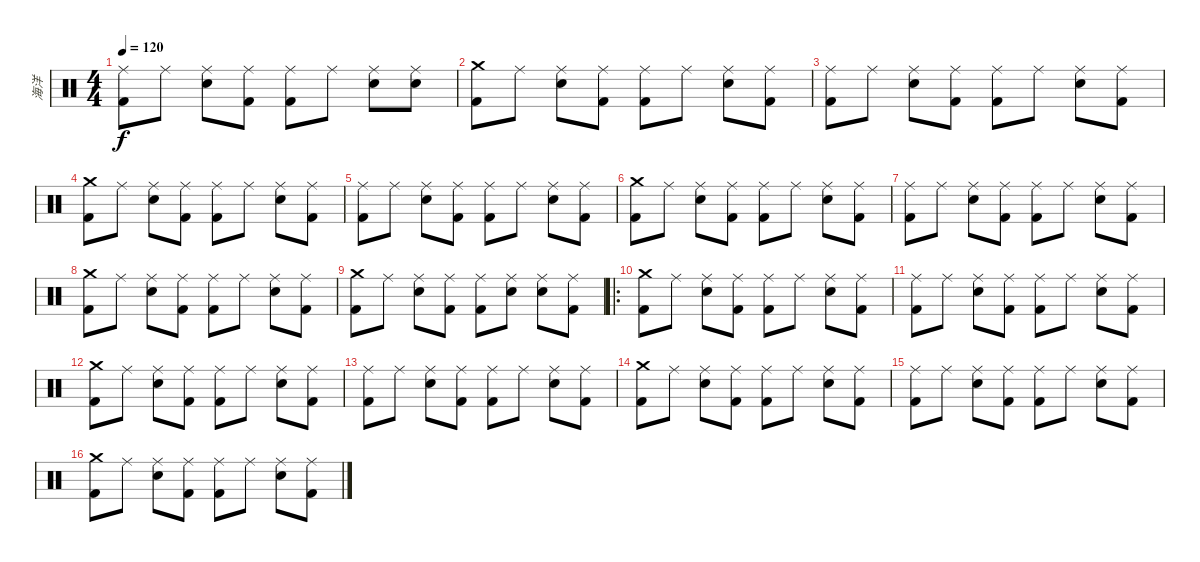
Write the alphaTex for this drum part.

\track ("海洋" "海洋") {instrument percussion}
\staff {score}
\articulation defaults
\ts (4 4)
\tempo 120
\clef neutral
\ks c
("Ride (middle)" "Kick (hit) 2").8{dy f} "Ride (middle)".8 ("Ride (middle)" "Electric Snare (hit)").8 ("Ride (middle)" "Kick (hit) 2").8 ("Ride (middle)" "Kick (hit) 2").8 "Ride (middle)".8 ("Ride (middle)" "Electric Snare (hit)").8 ("Ride (middle)" "Electric Snare (hit)").8 |
("Crash medium (hit)" "Kick (hit) 2").8 "Ride (middle)".8 ("Ride (middle)" "Electric Snare (hit)").8 ("Ride (middle)" "Kick (hit) 2").8 ("Ride (middle)" "Kick (hit) 2").8 "Ride (middle)".8 ("Ride (middle)" "Electric Snare (hit)").8 ("Ride (middle)" "Kick (hit) 2").8 |
("Ride (middle)" "Kick (hit) 2").8 "Ride (middle)".8 ("Ride (middle)" "Electric Snare (hit)").8 ("Ride (middle)" "Kick (hit) 2").8 ("Ride (middle)" "Kick (hit) 2").8 "Ride (middle)".8 ("Ride (middle)" "Electric Snare (hit)").8 ("Ride (middle)" "Kick (hit) 2").8 |
("Crash medium (hit)" "Kick (hit) 2").8 "Ride (middle)".8 ("Ride (middle)" "Electric Snare (hit)").8 ("Ride (middle)" "Kick (hit) 2").8 ("Ride (middle)" "Kick (hit) 2").8 "Ride (middle)".8 ("Ride (middle)" "Electric Snare (hit)").8 ("Ride (middle)" "Kick (hit) 2").8 |
("Ride (middle)" "Kick (hit) 2").8 "Ride (middle)".8 ("Ride (middle)" "Electric Snare (hit)").8 ("Ride (middle)" "Kick (hit) 2").8 ("Ride (middle)" "Kick (hit) 2").8 "Ride (middle)".8 ("Ride (middle)" "Electric Snare (hit)").8 ("Ride (middle)" "Kick (hit) 2").8 |
("Crash medium (hit)" "Kick (hit) 2").8 "Ride (middle)".8 ("Ride (middle)" "Electric Snare (hit)").8 ("Ride (middle)" "Kick (hit) 2").8 ("Ride (middle)" "Kick (hit) 2").8 "Ride (middle)".8 ("Ride (middle)" "Electric Snare (hit)").8 ("Ride (middle)" "Kick (hit) 2").8 |
("Ride (middle)" "Kick (hit) 2").8 "Ride (middle)".8 ("Ride (middle)" "Electric Snare (hit)").8 ("Ride (middle)" "Kick (hit) 2").8 ("Ride (middle)" "Kick (hit) 2").8 "Ride (middle)".8 ("Ride (middle)" "Electric Snare (hit)").8 ("Ride (middle)" "Kick (hit) 2").8 |
("Crash medium (hit)" "Kick (hit) 2").8 "Ride (middle)".8 ("Ride (middle)" "Electric Snare (hit)").8 ("Ride (middle)" "Kick (hit) 2").8 ("Ride (middle)" "Kick (hit) 2").8 "Ride (middle)".8 ("Ride (middle)" "Electric Snare (hit)").8 ("Ride (middle)" "Kick (hit) 2").8 |
("Crash medium (hit)" "Kick (hit) 2").8 "Ride (middle)".8 ("Ride (middle)" "Electric Snare (hit)").8 ("Ride (middle)" "Kick (hit) 2").8 ("Ride (middle)" "Kick (hit) 2").8 ("Ride (middle)" "Electric Snare (hit)").8 ("Ride (middle)" "Electric Snare (hit)").8 ("Ride (middle)" "Kick (hit) 2").8 |
\ro
("Crash medium (hit)" "Kick (hit) 2").8 "Ride (middle)".8 ("Ride (middle)" "Electric Snare (hit)").8 ("Ride (middle)" "Kick (hit) 2").8 ("Ride (middle)" "Kick (hit) 2").8 "Ride (middle)".8 ("Ride (middle)" "Electric Snare (hit)").8 ("Ride (middle)" "Kick (hit) 2").8 |
("Ride (middle)" "Kick (hit) 2").8 "Ride (middle)".8 ("Ride (middle)" "Electric Snare (hit)").8 ("Ride (middle)" "Kick (hit) 2").8 ("Ride (middle)" "Kick (hit) 2").8 "Ride (middle)".8 ("Ride (middle)" "Electric Snare (hit)").8 ("Ride (middle)" "Kick (hit) 2").8 |
("Crash medium (hit)" "Kick (hit) 2").8 "Ride (middle)".8 ("Ride (middle)" "Electric Snare (hit)").8 ("Ride (middle)" "Kick (hit) 2").8 ("Ride (middle)" "Kick (hit) 2").8 "Ride (middle)".8 ("Ride (middle)" "Electric Snare (hit)").8 ("Ride (middle)" "Kick (hit) 2").8 |
("Ride (middle)" "Kick (hit) 2").8 "Ride (middle)".8 ("Ride (middle)" "Electric Snare (hit)").8 ("Ride (middle)" "Kick (hit) 2").8 ("Ride (middle)" "Kick (hit) 2").8 "Ride (middle)".8 ("Ride (middle)" "Electric Snare (hit)").8 ("Ride (middle)" "Kick (hit) 2").8 |
("Crash medium (hit)" "Kick (hit) 2").8 "Ride (middle)".8 ("Ride (middle)" "Electric Snare (hit)").8 ("Ride (middle)" "Kick (hit) 2").8 ("Ride (middle)" "Kick (hit) 2").8 "Ride (middle)".8 ("Ride (middle)" "Electric Snare (hit)").8 ("Ride (middle)" "Kick (hit) 2").8 |
("Ride (middle)" "Kick (hit) 2").8 "Ride (middle)".8 ("Ride (middle)" "Electric Snare (hit)").8 ("Ride (middle)" "Kick (hit) 2").8 ("Ride (middle)" "Kick (hit) 2").8 "Ride (middle)".8 ("Ride (middle)" "Electric Snare (hit)").8 ("Ride (middle)" "Kick (hit) 2").8 |
("Crash medium (hit)" "Kick (hit) 2").8 "Ride (middle)".8 ("Ride (middle)" "Electric Snare (hit)").8 ("Ride (middle)" "Kick (hit) 2").8 ("Ride (middle)" "Kick (hit) 2").8 "Ride (middle)".8 ("Ride (middle)" "Electric Snare (hit)").8 ("Ride (middle)" "Kick (hit) 2").8
